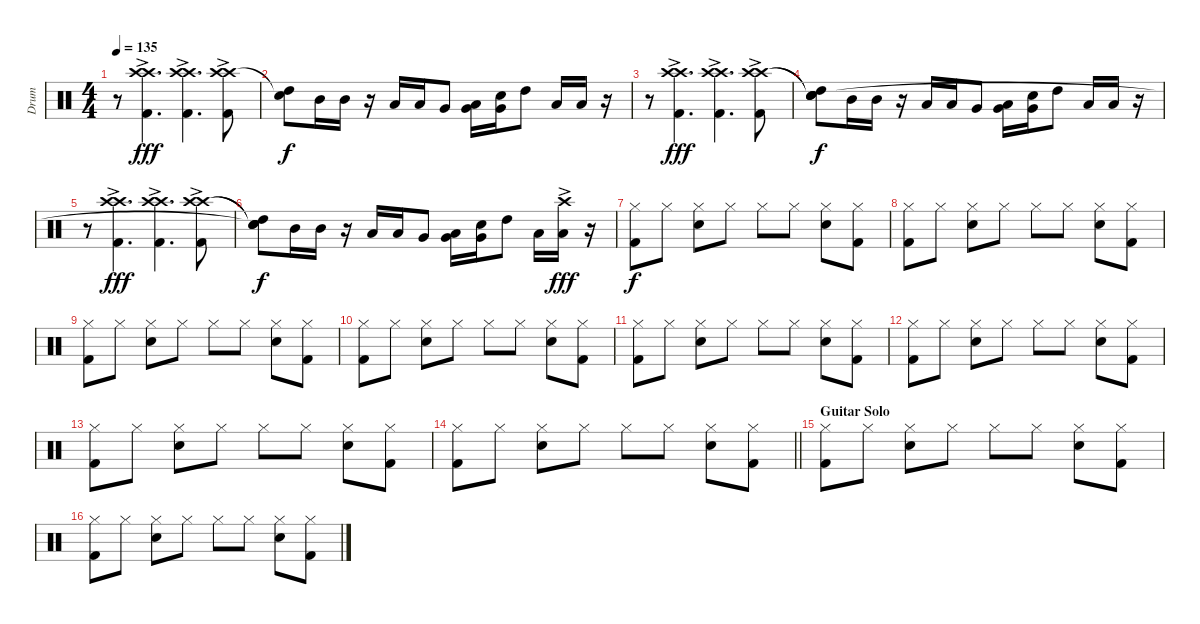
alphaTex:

\track ("Drum" "Drum") {instrument percussion}
\staff {score}
\articulation defaults
\ts (4 4)
\tempo 135
\clef neutral
\ks c
r.8{dy f} ("Crash high (hit)"{ac} "Crash high (hit)"{ac} "Kick (hit) 2"{ac}).4{d dy fff} ("Crash high (hit)"{ac} "Crash high (hit)"{ac} "Kick (hit) 2"{ac}).4{d} ("Crash high (hit)"{ac} "Crash high (hit)"{ac} "Kick (hit) 2"{ac}).8 |
("High Tom (hit)" "Snare (hit)"{t}).8{dy f} "Mid Tom (hit)".16 "Mid Tom (hit)".16 r.16 "Low Tom (hit)".16 "Low Tom (hit)".16 "Very Low Tom (hit)".8 ("Low Floor Tom (hit)" "Very Low Tom (hit)").16 ("Electric Snare (hit)" "Very Low Tom (hit)").16 "High Tom (hit)".8 "Low Floor Tom (hit)".16 "Low Floor Tom (hit)".16 r.16 |
r.8 ("Crash high (hit)"{ac} "Crash high (hit)"{ac} "Kick (hit) 2"{ac}).4{d dy fff} ("Crash high (hit)"{ac} "Crash high (hit)"{ac} "Kick (hit) 2"{ac}).4{d} ("Crash high (hit)"{ac} "Crash high (hit)"{ac} "Kick (hit) 2"{ac}).8 |
("Snare (hit)"{t} "Snare (hit)"{t} "High Tom (hit)" "Snare (hit)").8{dy f} "Mid Tom (hit)".16 "Mid Tom (hit)".16 r.16 "Low Tom (hit)".16 "Low Tom (hit)".16 "Very Low Tom (hit)".8 ("Low Floor Tom (hit)" "Very Low Tom (hit)").16 ("Electric Snare (hit)" "Very Low Tom (hit)").16 "High Tom (hit)".8 "Low Floor Tom (hit)".16 "Low Floor Tom (hit)".16 r.16 |
r.8 ("Crash high (hit)"{ac} "Crash high (hit)"{ac} "Kick (hit) 2"{ac}).4{d dy fff} ("Crash high (hit)"{ac} "Crash high (hit)"{ac} "Kick (hit) 2"{ac}).4{d} ("Crash high (hit)"{ac} "Crash high (hit)"{ac} "Kick (hit) 2"{ac}).8 |
("Snare (hit)"{t} "Snare (hit)"{t} "High Tom (hit)" "Snare (hit)"{t}).8{dy f} "Mid Tom (hit)".16 "Mid Tom (hit)".16 r.16 "Low Tom (hit)".16 "Low Tom (hit)".16 "Very Low Tom (hit)".8 ("Low Floor Tom (hit)" "Very Low Tom (hit)").16 ("Electric Snare (hit)" "Very Low Tom (hit)").16 "High Tom (hit)".8 "Low Floor Tom (hit)".16 ("Crash high (hit)"{ac} "Low Floor Tom (hit)").16{dy fff} r.16 |
("Hi-Hat (closed)" "Kick (hit) 2").8{dy f} "Hi-Hat (closed)".8 ("Snare (hit) 2" "Hi-Hat (closed)").8 "Hi-Hat (closed)".8 "Hi-Hat (closed)".8 "Hi-Hat (closed)".8 ("Snare (hit) 2" "Hi-Hat (closed)").8 ("Hi-Hat (closed)" "Kick (hit) 2").8 |
("Hi-Hat (closed)" "Kick (hit) 2").8 "Hi-Hat (closed)".8 ("Snare (hit) 2" "Hi-Hat (closed)").8 "Hi-Hat (closed)".8 "Hi-Hat (closed)".8 "Hi-Hat (closed)".8 ("Snare (hit) 2" "Hi-Hat (closed)").8 ("Hi-Hat (closed)" "Kick (hit) 2").8 |
("Hi-Hat (closed)" "Kick (hit) 2").8 "Hi-Hat (closed)".8 ("Snare (hit) 2" "Hi-Hat (closed)").8 "Hi-Hat (closed)".8 "Hi-Hat (closed)".8 "Hi-Hat (closed)".8 ("Snare (hit) 2" "Hi-Hat (closed)").8 ("Hi-Hat (closed)" "Kick (hit) 2").8 |
("Hi-Hat (closed)" "Kick (hit) 2").8 "Hi-Hat (closed)".8 ("Snare (hit) 2" "Hi-Hat (closed)").8 "Hi-Hat (closed)".8 "Hi-Hat (closed)".8 "Hi-Hat (closed)".8 ("Snare (hit) 2" "Hi-Hat (closed)").8 ("Hi-Hat (closed)" "Kick (hit) 2").8 |
("Hi-Hat (closed)" "Kick (hit) 2").8 "Hi-Hat (closed)".8 ("Snare (hit) 2" "Hi-Hat (closed)").8 "Hi-Hat (closed)".8 "Hi-Hat (closed)".8 "Hi-Hat (closed)".8 ("Snare (hit) 2" "Hi-Hat (closed)").8 ("Hi-Hat (closed)" "Kick (hit) 2").8 |
("Hi-Hat (closed)" "Kick (hit) 2").8 "Hi-Hat (closed)".8 ("Snare (hit) 2" "Hi-Hat (closed)").8 "Hi-Hat (closed)".8 "Hi-Hat (closed)".8 "Hi-Hat (closed)".8 ("Snare (hit) 2" "Hi-Hat (closed)").8 ("Hi-Hat (closed)" "Kick (hit) 2").8 |
("Hi-Hat (closed)" "Kick (hit) 2").8 "Hi-Hat (closed)".8 ("Snare (hit) 2" "Hi-Hat (closed)").8 "Hi-Hat (closed)".8 "Hi-Hat (closed)".8 "Hi-Hat (closed)".8 ("Snare (hit) 2" "Hi-Hat (closed)").8 ("Hi-Hat (closed)" "Kick (hit) 2").8 |
\barLineRight lightlight
("Hi-Hat (closed)" "Kick (hit) 2").8 "Hi-Hat (closed)".8 ("Snare (hit) 2" "Hi-Hat (closed)").8 "Hi-Hat (closed)".8 "Hi-Hat (closed)".8 "Hi-Hat (closed)".8 ("Snare (hit) 2" "Hi-Hat (closed)").8 ("Hi-Hat (closed)" "Kick (hit) 2").8 |
\section ("" "Guitar Solo")
("Hi-Hat (closed)" "Kick (hit) 2").8 "Hi-Hat (closed)".8 ("Snare (hit) 2" "Hi-Hat (closed)").8 "Hi-Hat (closed)".8 "Hi-Hat (closed)".8 "Hi-Hat (closed)".8 ("Snare (hit) 2" "Hi-Hat (closed)").8 ("Hi-Hat (closed)" "Kick (hit) 2").8 |
("Hi-Hat (closed)" "Kick (hit) 2").8 "Hi-Hat (closed)".8 ("Snare (hit) 2" "Hi-Hat (closed)").8 "Hi-Hat (closed)".8 "Hi-Hat (closed)".8 "Hi-Hat (closed)".8 ("Snare (hit) 2" "Hi-Hat (closed)").8 ("Hi-Hat (closed)" "Kick (hit) 2").8
